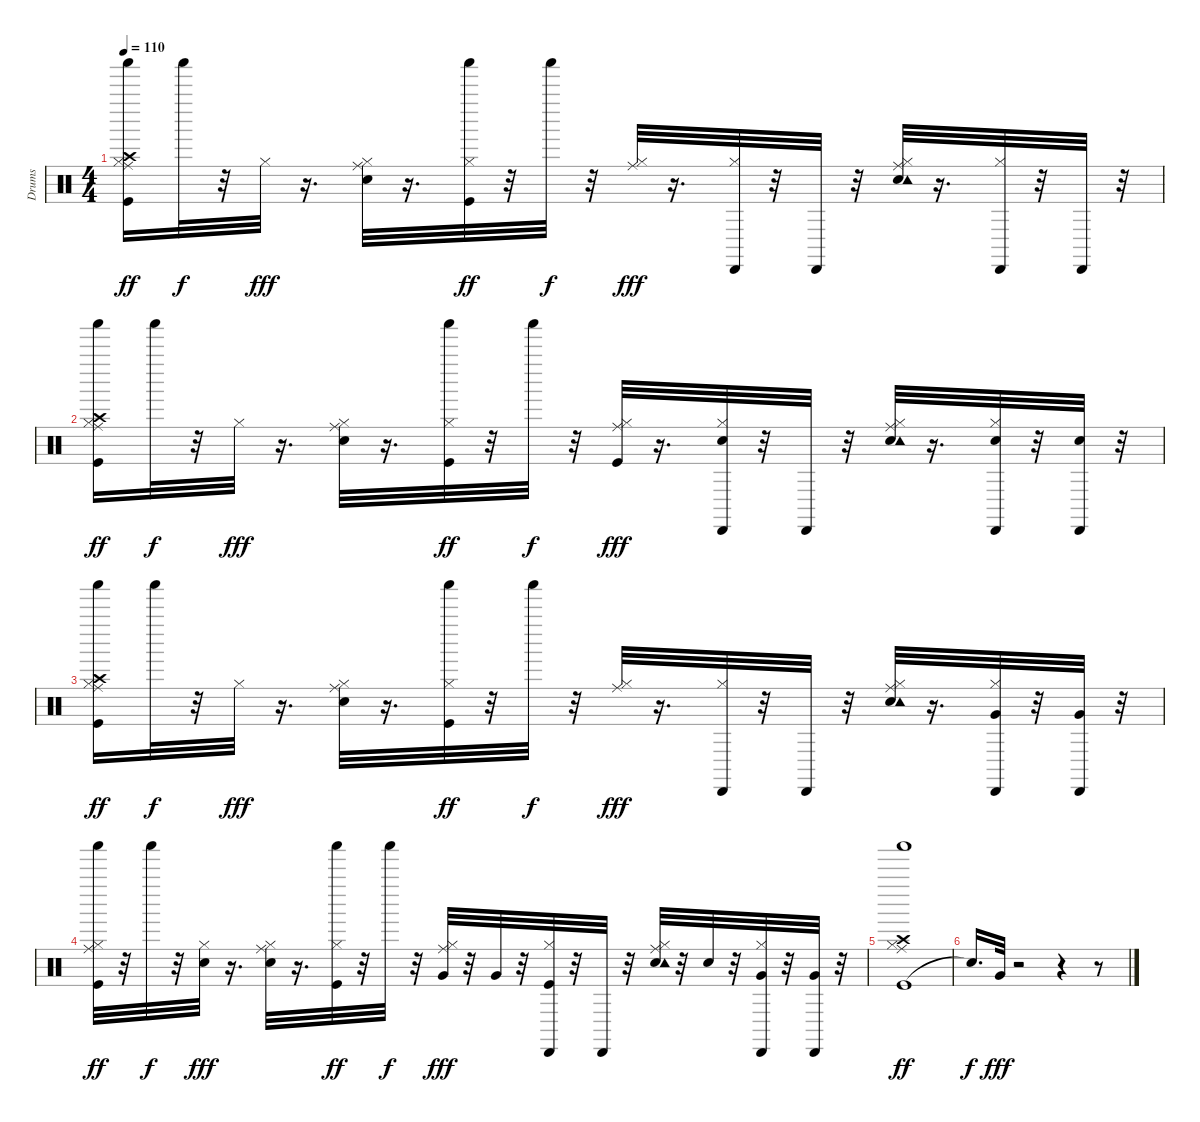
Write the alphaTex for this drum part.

\track ("Drums               " "Drums     ") {instrument percussion}
\staff {score}
\articulation defaults
\ts (4 4)
\tempo 110
\clef neutral
\ks c
("Kick (hit)" "Hi-Hat (closed)" "Crash high (hit)" "Ride (middle)" "Shaker (hit)").16{dy ff} "Shaker (hit)".32{dy f} r.32 "Hi-Hat (closed)".32{dy fff} r.16{d} ("Electric Snare (hit)" "Hi-Hat (closed)" "Ride (middle)").32 r.16{d} ("Kick (hit)" "Hi-Hat (closed)" "Shaker (hit)").32{dy ff} r.32 "Shaker (hit)".32{dy f} r.32 ("Hi-Hat (closed)" "Ride (middle)").32{dy fff} r.16{d} ("Hi-Hat (closed)" "Cabasa (hit)").32 r.32 "Cabasa (hit)".32 r.32 ("Electric Snare (hit)" "Hi-Hat (closed)" "Ride (middle)" "Tambourine (hit)").32 r.16{d} ("Hi-Hat (closed)" "Cabasa (hit)").32 r.32 "Cabasa (hit)".32 r.32 |
("Kick (hit)" "Hi-Hat (closed)" "Crash high (hit)" "Ride (middle)" "Shaker (hit)").16{dy ff} "Shaker (hit)".32{dy f} r.32 "Hi-Hat (closed)".32{dy fff} r.16{d} ("Electric Snare (hit)" "Hi-Hat (closed)" "Ride (middle)").32 r.16{d} ("Kick (hit)" "Hi-Hat (closed)" "Shaker (hit)").32{dy ff} r.32 "Shaker (hit)".32{dy f} r.32 ("Kick (hit)" "Hi-Hat (closed)" "Ride (middle)").32{dy fff} r.16{d} ("Electric Snare (hit)" "Hi-Hat (closed)" "Cabasa (hit)").32 r.32 "Cabasa (hit)".32 r.32 ("Electric Snare (hit)" "Hi-Hat (closed)" "Ride (middle)" "Tambourine (hit)").32 r.16{d} ("Electric Snare (hit)" "Hi-Hat (closed)" "Cabasa (hit)").32 r.32 ("Electric Snare (hit)" "Cabasa (hit)").32 r.32 |
("Kick (hit)" "Hi-Hat (closed)" "Crash high (hit)" "Ride (middle)" "Shaker (hit)").16{dy ff} "Shaker (hit)".32{dy f} r.32 "Hi-Hat (closed)".32{dy fff} r.16{d} ("Electric Snare (hit)" "Hi-Hat (closed)" "Ride (middle)").32 r.16{d} ("Kick (hit)" "Hi-Hat (closed)" "Shaker (hit)").32{dy ff} r.32 "Shaker (hit)".32{dy f} r.32 ("Hi-Hat (closed)" "Ride (middle)").32{dy fff} r.16{d} ("Hi-Hat (closed)" "Cabasa (hit)").32 r.32 "Cabasa (hit)".32 r.32 ("Electric Snare (hit)" "Hi-Hat (closed)" "Ride (middle)" "Tambourine (hit)").32 r.16{d} ("Hi-Hat (closed)" "Very Low Tom (hit)" "Cabasa (hit)").32 r.32 ("Very Low Tom (hit)" "Cabasa (hit)").32 r.32 |
("Kick (hit)" "Hi-Hat (closed)" "Ride (middle)" "Shaker (hit)").32{dy ff} r.32 "Shaker (hit)".32{dy f} r.32 ("Electric Snare (hit)" "Hi-Hat (closed)").32{dy fff} r.16{d} ("Electric Snare (hit)" "Hi-Hat (closed)" "Ride (middle)").32 r.16{d} ("Kick (hit)" "Hi-Hat (closed)" "Shaker (hit)").32{dy ff} r.32 "Shaker (hit)".32{dy f} r.32 ("Hi-Hat (closed)" "Very Low Tom (hit)" "Ride (middle)").32{dy fff} r.32 "Very Low Tom (hit)".32 r.32 ("Kick (hit)" "Hi-Hat (closed)" "Cabasa (hit)").32 r.32 "Cabasa (hit)".32 r.32 ("Electric Snare (hit)" "Hi-Hat (closed)" "Ride (middle)" "Tambourine (hit)").32 r.32 "Electric Snare (hit)".32 r.32 ("Hi-Hat (closed)" "Very Low Tom (hit)" "Cabasa (hit)").32 r.32 ("Very Low Tom (hit)" "Cabasa (hit)").32 r.32 |
("Kick (hit)" "Hi-Hat (closed)" "Crash high (hit)" "Ride (middle)" "Shaker (hit)").1{dy ff} |
"Snare (hit)"{t}.16{d dy f} "Very Low Tom (hit)".32{dy fff} r.2 r.4 r.8
